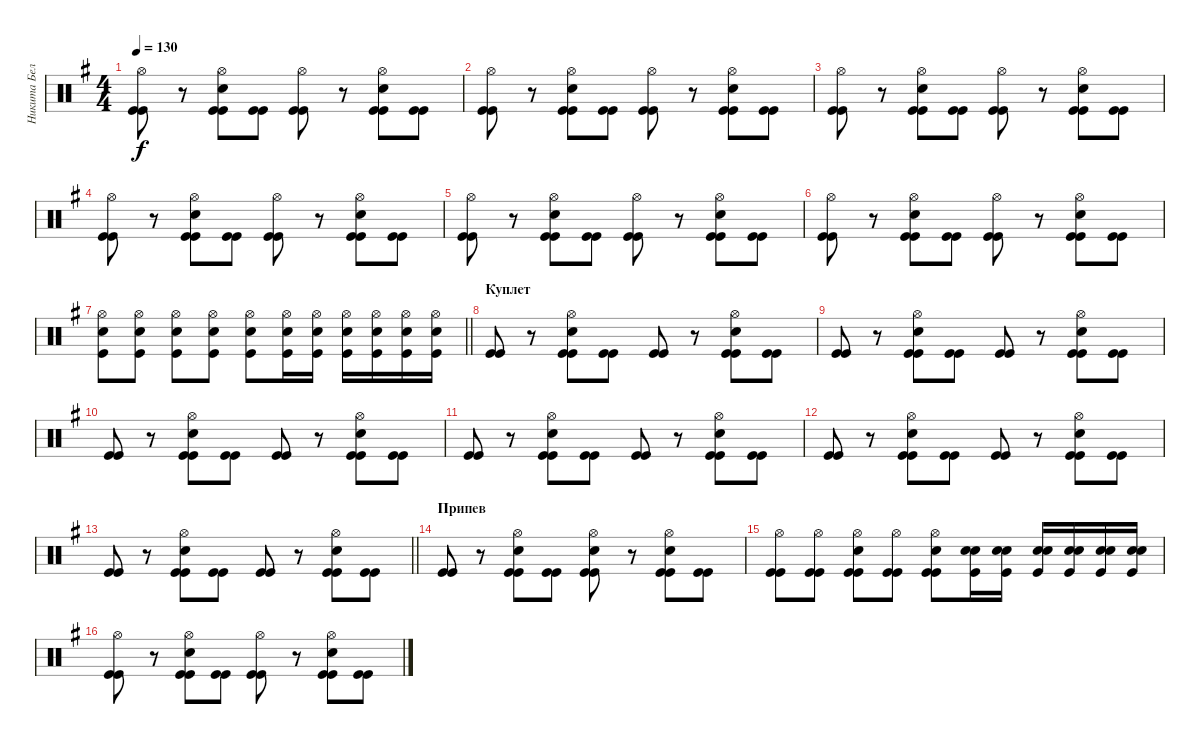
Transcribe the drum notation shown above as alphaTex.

\track ("Никита Белозёров" "Никита Бел") {instrument percussion}
\staff {score}
\articulation defaults
\ts (4 4)
\tempo 130
\clef neutral
\ks eminor
("Hi-Hat (open)" "Kick (hit)" "Kick (hit)").8{dy f} r.8 ("Hi-Hat (open)" "Kick (hit)" "Kick (hit)" "Snare (hit) 2").8 ("Kick (hit)" "Kick (hit)").8 ("Hi-Hat (open)" "Kick (hit)" "Kick (hit)").8 r.8 ("Hi-Hat (open)" "Kick (hit)" "Kick (hit)" "Snare (hit) 2").8 ("Kick (hit)" "Kick (hit)").8 |
("Hi-Hat (open)" "Kick (hit)" "Kick (hit)").8 r.8 ("Hi-Hat (open)" "Kick (hit)" "Kick (hit)" "Snare (hit) 2").8 ("Kick (hit)" "Kick (hit)").8 ("Hi-Hat (open)" "Kick (hit)" "Kick (hit)").8 r.8 ("Hi-Hat (open)" "Kick (hit)" "Kick (hit)" "Snare (hit) 2").8 ("Kick (hit)" "Kick (hit)").8 |
("Hi-Hat (open)" "Kick (hit)" "Kick (hit)").8 r.8 ("Hi-Hat (open)" "Kick (hit)" "Kick (hit)" "Snare (hit) 2").8 ("Kick (hit)" "Kick (hit)").8 ("Hi-Hat (open)" "Kick (hit)" "Kick (hit)").8 r.8 ("Hi-Hat (open)" "Kick (hit)" "Kick (hit)" "Snare (hit) 2").8 ("Kick (hit)" "Kick (hit)").8 |
("Hi-Hat (open)" "Kick (hit)" "Kick (hit)").8 r.8 ("Hi-Hat (open)" "Kick (hit)" "Kick (hit)" "Snare (hit) 2").8 ("Kick (hit)" "Kick (hit)").8 ("Hi-Hat (open)" "Kick (hit)" "Kick (hit)").8 r.8 ("Hi-Hat (open)" "Kick (hit)" "Kick (hit)" "Snare (hit) 2").8 ("Kick (hit)" "Kick (hit)").8 |
("Hi-Hat (open)" "Kick (hit)" "Kick (hit)").8 r.8 ("Hi-Hat (open)" "Kick (hit)" "Kick (hit)" "Snare (hit) 2").8 ("Kick (hit)" "Kick (hit)").8 ("Hi-Hat (open)" "Kick (hit)" "Kick (hit)").8 r.8 ("Hi-Hat (open)" "Kick (hit)" "Kick (hit)" "Snare (hit) 2").8 ("Kick (hit)" "Kick (hit)").8 |
("Hi-Hat (open)" "Kick (hit)" "Kick (hit)").8 r.8 ("Hi-Hat (open)" "Kick (hit)" "Kick (hit)" "Snare (hit) 2").8 ("Kick (hit)" "Kick (hit)").8 ("Hi-Hat (open)" "Kick (hit)" "Kick (hit)").8 r.8 ("Hi-Hat (open)" "Kick (hit)" "Kick (hit)" "Snare (hit) 2").8 ("Kick (hit)" "Kick (hit)").8 |
\barLineRight lightlight
("Hi-Hat (open)" "Kick (hit)" "Snare (hit) 2").8 ("Hi-Hat (open)" "Kick (hit)" "Snare (hit) 2").8 ("Hi-Hat (open)" "Kick (hit)" "Snare (hit) 2").8 ("Hi-Hat (open)" "Kick (hit)" "Snare (hit) 2").8 ("Hi-Hat (open)" "Kick (hit)" "Snare (hit) 2").8 ("Hi-Hat (open)" "Kick (hit)" "Snare (hit) 2").16 ("Hi-Hat (open)" "Kick (hit)" "Snare (hit) 2").16 ("Hi-Hat (open)" "Kick (hit)" "Snare (hit) 2").16 ("Hi-Hat (open)" "Kick (hit)" "Snare (hit) 2").16 ("Hi-Hat (open)" "Kick (hit)" "Snare (hit) 2").16 ("Hi-Hat (open)" "Kick (hit)" "Snare (hit) 2").16 |
\section ("" "Куплет")
("Kick (hit)" "Kick (hit)").8 r.8 ("Hi-Hat (open)" "Kick (hit)" "Kick (hit)" "Snare (hit) 2").8 ("Kick (hit)" "Kick (hit)").8 ("Kick (hit)" "Kick (hit)").8 r.8 ("Hi-Hat (open)" "Kick (hit)" "Kick (hit)" "Snare (hit) 2").8 ("Kick (hit)" "Kick (hit)").8 |
("Kick (hit)" "Kick (hit)").8 r.8 ("Hi-Hat (open)" "Kick (hit)" "Kick (hit)" "Snare (hit) 2").8 ("Kick (hit)" "Kick (hit)").8 ("Kick (hit)" "Kick (hit)").8 r.8 ("Hi-Hat (open)" "Kick (hit)" "Kick (hit)" "Snare (hit) 2").8 ("Kick (hit)" "Kick (hit)").8 |
("Kick (hit)" "Kick (hit)").8 r.8 ("Hi-Hat (open)" "Kick (hit)" "Kick (hit)" "Snare (hit) 2").8 ("Kick (hit)" "Kick (hit)").8 ("Kick (hit)" "Kick (hit)").8 r.8 ("Hi-Hat (open)" "Kick (hit)" "Kick (hit)" "Snare (hit) 2").8 ("Kick (hit)" "Kick (hit)").8 |
("Kick (hit)" "Kick (hit)").8 r.8 ("Hi-Hat (open)" "Kick (hit)" "Kick (hit)" "Snare (hit) 2").8 ("Kick (hit)" "Kick (hit)").8 ("Kick (hit)" "Kick (hit)").8 r.8 ("Hi-Hat (open)" "Kick (hit)" "Kick (hit)" "Snare (hit) 2").8 ("Kick (hit)" "Kick (hit)").8 |
("Kick (hit)" "Kick (hit)").8 r.8 ("Hi-Hat (open)" "Kick (hit)" "Kick (hit)" "Snare (hit) 2").8 ("Kick (hit)" "Kick (hit)").8 ("Kick (hit)" "Kick (hit)").8 r.8 ("Hi-Hat (open)" "Kick (hit)" "Kick (hit)" "Snare (hit) 2").8 ("Kick (hit)" "Kick (hit)").8 |
\barLineRight lightlight
("Kick (hit)" "Kick (hit)").8 r.8 ("Hi-Hat (open)" "Kick (hit)" "Kick (hit)" "Snare (hit) 2").8 ("Kick (hit)" "Kick (hit)").8 ("Kick (hit)" "Kick (hit)").8 r.8 ("Hi-Hat (open)" "Kick (hit)" "Kick (hit)" "Snare (hit) 2").8 ("Kick (hit)" "Kick (hit)").8 |
\section ("" "Припев")
("Kick (hit)" "Kick (hit)").8 r.8 ("Hi-Hat (open)" "Kick (hit)" "Kick (hit)" "Snare (hit) 2").8 ("Kick (hit)" "Kick (hit)").8 ("Hi-Hat (open)" "Kick (hit)" "Kick (hit)" "Snare (hit) 2").8 r.8 ("Hi-Hat (open)" "Kick (hit)" "Kick (hit)" "Snare (hit) 2").8 ("Kick (hit)" "Kick (hit)").8 |
("Hi-Hat (open)" "Kick (hit)" "Kick (hit)").8 ("Hi-Hat (open)" "Kick (hit)" "Kick (hit)").8 ("Hi-Hat (open)" "Kick (hit)" "Kick (hit)" "Snare (hit) 2").8 ("Hi-Hat (open)" "Kick (hit)" "Kick (hit)").8 ("Hi-Hat (open)" "Kick (hit)" "Kick (hit)" "Snare (hit) 2").8 ("Kick (hit)" "Electric Snare (hit)" "Snare (hit) 2").16 ("Kick (hit)" "Electric Snare (hit)" "Snare (hit) 2").16 ("Kick (hit)" "Electric Snare (hit)" "Snare (hit) 2").16 ("Kick (hit)" "Electric Snare (hit)" "Snare (hit) 2").16 ("Kick (hit)" "Electric Snare (hit)" "Snare (hit) 2").16 ("Kick (hit)" "Electric Snare (hit)" "Snare (hit) 2").16 |
("Hi-Hat (open)" "Kick (hit)" "Kick (hit)").8 r.8 ("Hi-Hat (open)" "Kick (hit)" "Kick (hit)" "Snare (hit) 2").8 ("Kick (hit)" "Kick (hit)").8 ("Hi-Hat (open)" "Kick (hit)" "Kick (hit)").8 r.8 ("Hi-Hat (open)" "Kick (hit)" "Kick (hit)" "Snare (hit) 2").8 ("Kick (hit)" "Kick (hit)").8
